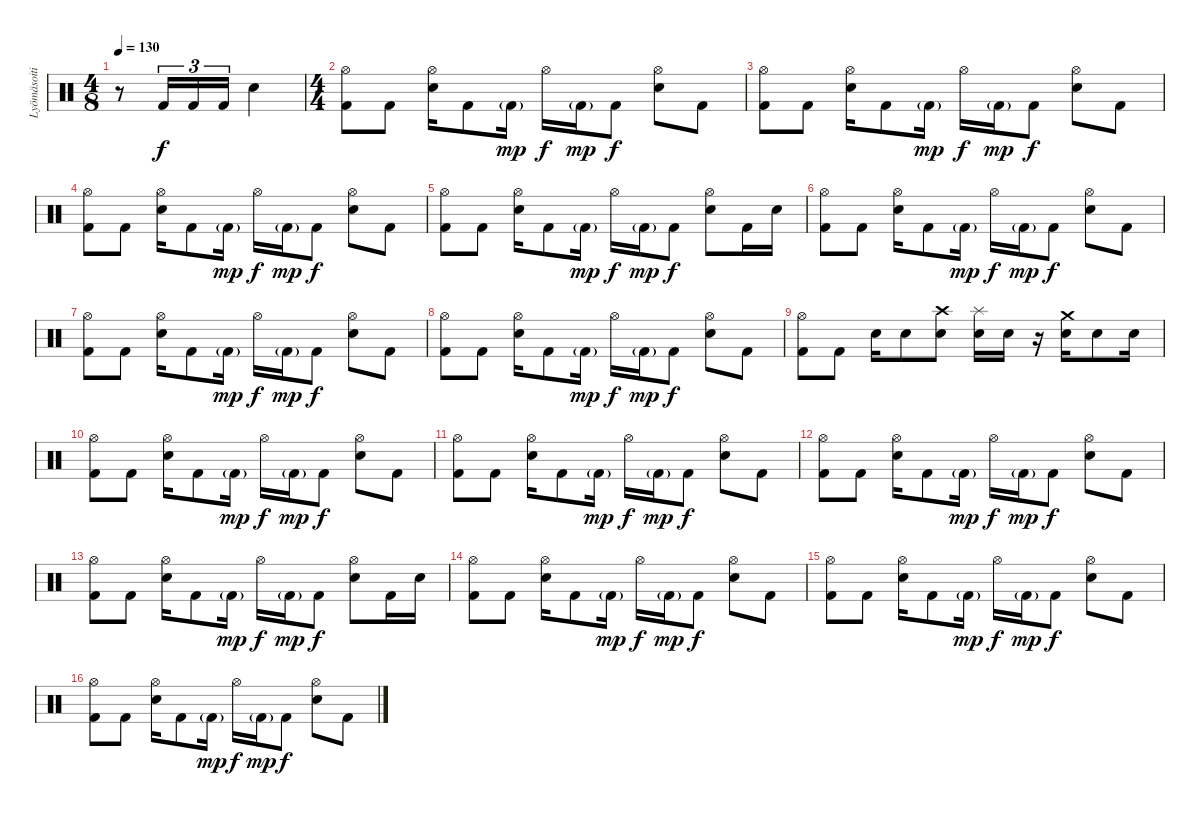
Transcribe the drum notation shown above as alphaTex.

\track ("Lyömäsoitin" "Lyömäsoiti") {instrument percussion}
\staff {score}
\articulation defaults
\ts (4 8)
\tempo 130
\clef neutral
\ks c
r.8{dy f} "Kick (hit) 2".16{tu (3 2)} "Kick (hit) 2".16{tu (3 2)} "Kick (hit) 2".16{tu (3 2)} "Electric Snare (hit)".4 |
\ts (4 4)
("Hi-Hat (open)" "Kick (hit) 2").8 "Kick (hit) 2".8 ("Hi-Hat (open)" "Electric Snare (hit)").16 "Kick (hit) 2".8 "Kick (hit) 2"{g}.16{dy mp} "Hi-Hat (open)".16{dy f} "Kick (hit) 2"{g}.16{dy mp} "Kick (hit) 2".8{dy f} ("Electric Snare (hit)" "Hi-Hat (open)").8 "Kick (hit) 2".8 |
("Hi-Hat (open)" "Kick (hit) 2").8 "Kick (hit) 2".8 ("Hi-Hat (open)" "Electric Snare (hit)").16 "Kick (hit) 2".8 "Kick (hit) 2"{g}.16{dy mp} "Hi-Hat (open)".16{dy f} "Kick (hit) 2"{g}.16{dy mp} "Kick (hit) 2".8{dy f} ("Electric Snare (hit)" "Hi-Hat (open)").8 "Kick (hit) 2".8 |
("Hi-Hat (open)" "Kick (hit) 2").8 "Kick (hit) 2".8 ("Hi-Hat (open)" "Electric Snare (hit)").16 "Kick (hit) 2".8 "Kick (hit) 2"{g}.16{dy mp} "Hi-Hat (open)".16{dy f} "Kick (hit) 2"{g}.16{dy mp} "Kick (hit) 2".8{dy f} ("Electric Snare (hit)" "Hi-Hat (open)").8 "Kick (hit) 2".8 |
("Hi-Hat (open)" "Kick (hit) 2").8 "Kick (hit) 2".8 ("Hi-Hat (open)" "Electric Snare (hit)").16 "Kick (hit) 2".8 "Kick (hit) 2"{g}.16{dy mp} "Hi-Hat (open)".16{dy f} "Kick (hit) 2"{g}.16{dy mp} "Kick (hit) 2".8{dy f} ("Electric Snare (hit)" "Hi-Hat (open)").8 "Kick (hit) 2".16 "Electric Snare (hit)".16 |
("Hi-Hat (open)" "Kick (hit) 2").8 "Kick (hit) 2".8 ("Hi-Hat (open)" "Electric Snare (hit)").16 "Kick (hit) 2".8 "Kick (hit) 2"{g}.16{dy mp} "Hi-Hat (open)".16{dy f} "Kick (hit) 2"{g}.16{dy mp} "Kick (hit) 2".8{dy f} ("Electric Snare (hit)" "Hi-Hat (open)").8 "Kick (hit) 2".8 |
("Hi-Hat (open)" "Kick (hit) 2").8 "Kick (hit) 2".8 ("Hi-Hat (open)" "Electric Snare (hit)").16 "Kick (hit) 2".8 "Kick (hit) 2"{g}.16{dy mp} "Hi-Hat (open)".16{dy f} "Kick (hit) 2"{g}.16{dy mp} "Kick (hit) 2".8{dy f} ("Electric Snare (hit)" "Hi-Hat (open)").8 "Kick (hit) 2".8 |
("Hi-Hat (open)" "Kick (hit) 2").8 "Kick (hit) 2".8 ("Hi-Hat (open)" "Electric Snare (hit)").16 "Kick (hit) 2".8 "Kick (hit) 2"{g}.16{dy mp} "Hi-Hat (open)".16{dy f} "Kick (hit) 2"{g}.16{dy mp} "Kick (hit) 2".8{dy f} ("Electric Snare (hit)" "Hi-Hat (open)").8 "Kick (hit) 2".8 |
("Hi-Hat (open)" "Kick (hit) 2").8 "Kick (hit) 2".8 "Electric Snare (hit)".16 "Electric Snare (hit)".8 ("Electric Snare (hit)" "Crash high (hit)").8 ("Electric Snare (hit)" "Splash (hit)").16 "Electric Snare (hit)".16 r.16 ("Electric Snare (hit)" "Crash medium (hit)").16 "Electric Snare (hit)".8 "Electric Snare (hit)".16 |
("Hi-Hat (open)" "Kick (hit) 2").8 "Kick (hit) 2".8 ("Hi-Hat (open)" "Electric Snare (hit)").16 "Kick (hit) 2".8 "Kick (hit) 2"{g}.16{dy mp} "Hi-Hat (open)".16{dy f} "Kick (hit) 2"{g}.16{dy mp} "Kick (hit) 2".8{dy f} ("Electric Snare (hit)" "Hi-Hat (open)").8 "Kick (hit) 2".8 |
("Hi-Hat (open)" "Kick (hit) 2").8 "Kick (hit) 2".8 ("Hi-Hat (open)" "Electric Snare (hit)").16 "Kick (hit) 2".8 "Kick (hit) 2"{g}.16{dy mp} "Hi-Hat (open)".16{dy f} "Kick (hit) 2"{g}.16{dy mp} "Kick (hit) 2".8{dy f} ("Electric Snare (hit)" "Hi-Hat (open)").8 "Kick (hit) 2".8 |
("Hi-Hat (open)" "Kick (hit) 2").8 "Kick (hit) 2".8 ("Hi-Hat (open)" "Electric Snare (hit)").16 "Kick (hit) 2".8 "Kick (hit) 2"{g}.16{dy mp} "Hi-Hat (open)".16{dy f} "Kick (hit) 2"{g}.16{dy mp} "Kick (hit) 2".8{dy f} ("Electric Snare (hit)" "Hi-Hat (open)").8 "Kick (hit) 2".8 |
("Hi-Hat (open)" "Kick (hit) 2").8 "Kick (hit) 2".8 ("Hi-Hat (open)" "Electric Snare (hit)").16 "Kick (hit) 2".8 "Kick (hit) 2"{g}.16{dy mp} "Hi-Hat (open)".16{dy f} "Kick (hit) 2"{g}.16{dy mp} "Kick (hit) 2".8{dy f} ("Electric Snare (hit)" "Hi-Hat (open)").8 "Kick (hit) 2".16 "Electric Snare (hit)".16 |
("Hi-Hat (open)" "Kick (hit) 2").8 "Kick (hit) 2".8 ("Hi-Hat (open)" "Electric Snare (hit)").16 "Kick (hit) 2".8 "Kick (hit) 2"{g}.16{dy mp} "Hi-Hat (open)".16{dy f} "Kick (hit) 2"{g}.16{dy mp} "Kick (hit) 2".8{dy f} ("Electric Snare (hit)" "Hi-Hat (open)").8 "Kick (hit) 2".8 |
("Hi-Hat (open)" "Kick (hit) 2").8 "Kick (hit) 2".8 ("Hi-Hat (open)" "Electric Snare (hit)").16 "Kick (hit) 2".8 "Kick (hit) 2"{g}.16{dy mp} "Hi-Hat (open)".16{dy f} "Kick (hit) 2"{g}.16{dy mp} "Kick (hit) 2".8{dy f} ("Electric Snare (hit)" "Hi-Hat (open)").8 "Kick (hit) 2".8 |
("Hi-Hat (open)" "Kick (hit) 2").8 "Kick (hit) 2".8 ("Hi-Hat (open)" "Electric Snare (hit)").16 "Kick (hit) 2".8 "Kick (hit) 2"{g}.16{dy mp} "Hi-Hat (open)".16{dy f} "Kick (hit) 2"{g}.16{dy mp} "Kick (hit) 2".8{dy f} ("Electric Snare (hit)" "Hi-Hat (open)").8 "Kick (hit) 2".8
